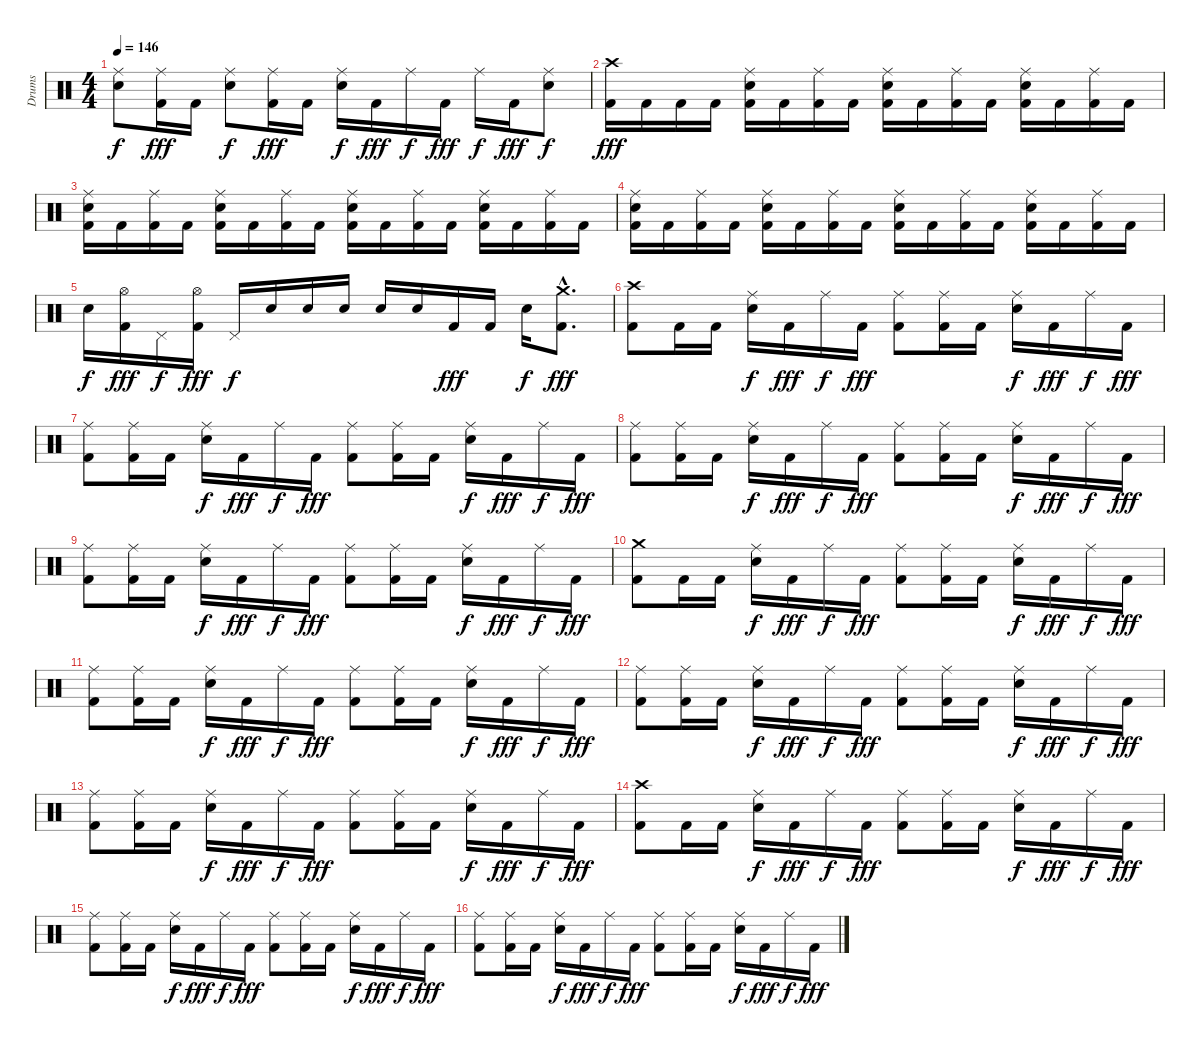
\track ("Drums" "Drums") {instrument percussion}
\staff {score}
\articulation defaults
\ts (4 4)
\tempo 146
\clef neutral
\ks c
("Ride (middle)" "Snare (hit) 2").8{dy f} ("Ride (middle)" "Kick (hit) 2").16{dy fff} "Kick (hit) 2".16 ("Ride (middle)" "Snare (hit) 2").8{dy f} ("Ride (middle)" "Kick (hit) 2").16{dy fff} "Kick (hit) 2".16 ("Ride (middle)" "Snare (hit) 2").16{dy f} "Kick (hit) 2".16{dy fff} "Ride (middle)".16{dy f} "Kick (hit) 2".16{dy fff} "Ride (middle)".16{dy f} "Kick (hit) 2".16{dy fff} ("Ride (middle)" "Snare (hit) 2").8{dy f} |
("Crash high (hit)" "Kick (hit) 2").16{dy fff} "Kick (hit) 2".16 "Kick (hit) 2".16 "Kick (hit) 2".16 ("Ride (middle)" "Snare (hit) 2" "Kick (hit) 2").16 "Kick (hit) 2".16 ("Ride (middle)" "Kick (hit) 2").16 "Kick (hit) 2".16 ("Ride (middle)" "Snare (hit) 2" "Kick (hit) 2").16 "Kick (hit) 2".16 ("Ride (middle)" "Kick (hit) 2").16 "Kick (hit) 2".16 ("Ride (middle)" "Snare (hit) 2" "Kick (hit) 2").16 "Kick (hit) 2".16 ("Ride (middle)" "Kick (hit) 2").16 "Kick (hit) 2".16 |
("Ride (middle)" "Snare (hit) 2" "Kick (hit) 2").16 "Kick (hit) 2".16 ("Ride (middle)" "Kick (hit) 2").16 "Kick (hit) 2".16 ("Ride (middle)" "Snare (hit) 2" "Kick (hit) 2").16 "Kick (hit) 2".16 ("Ride (middle)" "Kick (hit) 2").16 "Kick (hit) 2".16 ("Ride (middle)" "Snare (hit) 2" "Kick (hit) 2").16 "Kick (hit) 2".16 ("Ride (middle)" "Kick (hit) 2").16 "Kick (hit) 2".16 ("Ride (middle)" "Snare (hit) 2" "Kick (hit) 2").16 "Kick (hit) 2".16 ("Ride (middle)" "Kick (hit) 2").16 "Kick (hit) 2".16 |
("Ride (middle)" "Snare (hit) 2" "Kick (hit) 2").16 "Kick (hit) 2".16 ("Ride (middle)" "Kick (hit) 2").16 "Kick (hit) 2".16 ("Ride (middle)" "Snare (hit) 2" "Kick (hit) 2").16 "Kick (hit) 2".16 ("Ride (middle)" "Kick (hit) 2").16 "Kick (hit) 2".16 ("Ride (middle)" "Snare (hit) 2" "Kick (hit) 2").16 "Kick (hit) 2".16 ("Ride (middle)" "Kick (hit) 2").16 "Kick (hit) 2".16 ("Ride (middle)" "Snare (hit) 2" "Kick (hit) 2").16 "Kick (hit) 2".16 ("Ride (middle)" "Kick (hit) 2").16 "Kick (hit) 2".16 |
"Snare (hit) 2".16{dy f} ("Hi-Hat (open)" "Kick (hit) 2").16{dy fff} "Pedal Hi-Hat (hit)".16{dy f} ("Hi-Hat (open)" "Kick (hit) 2").16{dy fff} "Pedal Hi-Hat (hit)".16{dy f} "Snare (hit) 2".16 "Snare (hit) 2".16 "Snare (hit) 2".16 "Snare (hit) 2".16 "Snare (hit) 2".16 "Kick (hit) 2".16{dy fff} "Kick (hit) 2".16 "Snare (hit) 2".16{dy f} ("Crash medium (hit)"{hac} "Kick (hit) 2"{hac}).8{d dy fff} |
("Crash high (hit)" "Kick (hit) 2").8 "Kick (hit) 2".16 "Kick (hit) 2".16 ("Ride (middle)" "Snare (hit) 2").16{dy f} "Kick (hit) 2".16{dy fff} "Ride (middle)".16{dy f} "Kick (hit) 2".16{dy fff} ("Ride (middle)" "Kick (hit) 2").8 ("Ride (middle)" "Kick (hit) 2").16 "Kick (hit) 2".16 ("Ride (middle)" "Snare (hit) 2").16{dy f} "Kick (hit) 2".16{dy fff} "Ride (middle)".16{dy f} "Kick (hit) 2".16{dy fff} |
("Ride (middle)" "Kick (hit) 2").8 ("Ride (middle)" "Kick (hit) 2").16 "Kick (hit) 2".16 ("Ride (middle)" "Snare (hit) 2").16{dy f} "Kick (hit) 2".16{dy fff} "Ride (middle)".16{dy f} "Kick (hit) 2".16{dy fff} ("Ride (middle)" "Kick (hit) 2").8 ("Ride (middle)" "Kick (hit) 2").16 "Kick (hit) 2".16 ("Ride (middle)" "Snare (hit) 2").16{dy f} "Kick (hit) 2".16{dy fff} "Ride (middle)".16{dy f} "Kick (hit) 2".16{dy fff} |
("Ride (middle)" "Kick (hit) 2").8 ("Ride (middle)" "Kick (hit) 2").16 "Kick (hit) 2".16 ("Ride (middle)" "Snare (hit) 2").16{dy f} "Kick (hit) 2".16{dy fff} "Ride (middle)".16{dy f} "Kick (hit) 2".16{dy fff} ("Ride (middle)" "Kick (hit) 2").8 ("Ride (middle)" "Kick (hit) 2").16 "Kick (hit) 2".16 ("Ride (middle)" "Snare (hit) 2").16{dy f} "Kick (hit) 2".16{dy fff} "Ride (middle)".16{dy f} "Kick (hit) 2".16{dy fff} |
("Ride (middle)" "Kick (hit) 2").8 ("Ride (middle)" "Kick (hit) 2").16 "Kick (hit) 2".16 ("Ride (middle)" "Snare (hit) 2").16{dy f} "Kick (hit) 2".16{dy fff} "Ride (middle)".16{dy f} "Kick (hit) 2".16{dy fff} ("Ride (middle)" "Kick (hit) 2").8 ("Ride (middle)" "Kick (hit) 2").16 "Kick (hit) 2".16 ("Ride (middle)" "Snare (hit) 2").16{dy f} "Kick (hit) 2".16{dy fff} "Ride (middle)".16{dy f} "Kick (hit) 2".16{dy fff} |
("Crash medium (hit)" "Kick (hit) 2").8 "Kick (hit) 2".16 "Kick (hit) 2".16 ("Ride (middle)" "Snare (hit) 2").16{dy f} "Kick (hit) 2".16{dy fff} "Ride (middle)".16{dy f} "Kick (hit) 2".16{dy fff} ("Ride (middle)" "Kick (hit) 2").8 ("Ride (middle)" "Kick (hit) 2").16 "Kick (hit) 2".16 ("Ride (middle)" "Snare (hit) 2").16{dy f} "Kick (hit) 2".16{dy fff} "Ride (middle)".16{dy f} "Kick (hit) 2".16{dy fff} |
("Ride (middle)" "Kick (hit) 2").8 ("Ride (middle)" "Kick (hit) 2").16 "Kick (hit) 2".16 ("Ride (middle)" "Snare (hit) 2").16{dy f} "Kick (hit) 2".16{dy fff} "Ride (middle)".16{dy f} "Kick (hit) 2".16{dy fff} ("Ride (middle)" "Kick (hit) 2").8 ("Ride (middle)" "Kick (hit) 2").16 "Kick (hit) 2".16 ("Ride (middle)" "Snare (hit) 2").16{dy f} "Kick (hit) 2".16{dy fff} "Ride (middle)".16{dy f} "Kick (hit) 2".16{dy fff} |
("Ride (middle)" "Kick (hit) 2").8 ("Ride (middle)" "Kick (hit) 2").16 "Kick (hit) 2".16 ("Ride (middle)" "Snare (hit) 2").16{dy f} "Kick (hit) 2".16{dy fff} "Ride (middle)".16{dy f} "Kick (hit) 2".16{dy fff} ("Ride (middle)" "Kick (hit) 2").8 ("Ride (middle)" "Kick (hit) 2").16 "Kick (hit) 2".16 ("Ride (middle)" "Snare (hit) 2").16{dy f} "Kick (hit) 2".16{dy fff} "Ride (middle)".16{dy f} "Kick (hit) 2".16{dy fff} |
("Ride (middle)" "Kick (hit) 2").8 ("Ride (middle)" "Kick (hit) 2").16 "Kick (hit) 2".16 ("Ride (middle)" "Snare (hit) 2").16{dy f} "Kick (hit) 2".16{dy fff} "Ride (middle)".16{dy f} "Kick (hit) 2".16{dy fff} ("Ride (middle)" "Kick (hit) 2").8 ("Ride (middle)" "Kick (hit) 2").16 "Kick (hit) 2".16 ("Ride (middle)" "Snare (hit) 2").16{dy f} "Kick (hit) 2".16{dy fff} "Ride (middle)".16{dy f} "Kick (hit) 2".16{dy fff} |
("Crash high (hit)" "Kick (hit) 2").8 "Kick (hit) 2".16 "Kick (hit) 2".16 ("Ride (middle)" "Snare (hit) 2").16{dy f} "Kick (hit) 2".16{dy fff} "Ride (middle)".16{dy f} "Kick (hit) 2".16{dy fff} ("Ride (middle)" "Kick (hit) 2").8 ("Ride (middle)" "Kick (hit) 2").16 "Kick (hit) 2".16 ("Ride (middle)" "Snare (hit) 2").16{dy f} "Kick (hit) 2".16{dy fff} "Ride (middle)".16{dy f} "Kick (hit) 2".16{dy fff} |
("Ride (middle)" "Kick (hit) 2").8 ("Ride (middle)" "Kick (hit) 2").16 "Kick (hit) 2".16 ("Ride (middle)" "Snare (hit) 2").16{dy f} "Kick (hit) 2".16{dy fff} "Ride (middle)".16{dy f} "Kick (hit) 2".16{dy fff} ("Ride (middle)" "Kick (hit) 2").8 ("Ride (middle)" "Kick (hit) 2").16 "Kick (hit) 2".16 ("Ride (middle)" "Snare (hit) 2").16{dy f} "Kick (hit) 2".16{dy fff} "Ride (middle)".16{dy f} "Kick (hit) 2".16{dy fff} |
("Ride (middle)" "Kick (hit) 2").8 ("Ride (middle)" "Kick (hit) 2").16 "Kick (hit) 2".16 ("Ride (middle)" "Snare (hit) 2").16{dy f} "Kick (hit) 2".16{dy fff} "Ride (middle)".16{dy f} "Kick (hit) 2".16{dy fff} ("Ride (middle)" "Kick (hit) 2").8 ("Ride (middle)" "Kick (hit) 2").16 "Kick (hit) 2".16 ("Ride (middle)" "Snare (hit) 2").16{dy f} "Kick (hit) 2".16{dy fff} "Ride (middle)".16{dy f} "Kick (hit) 2".16{dy fff}
